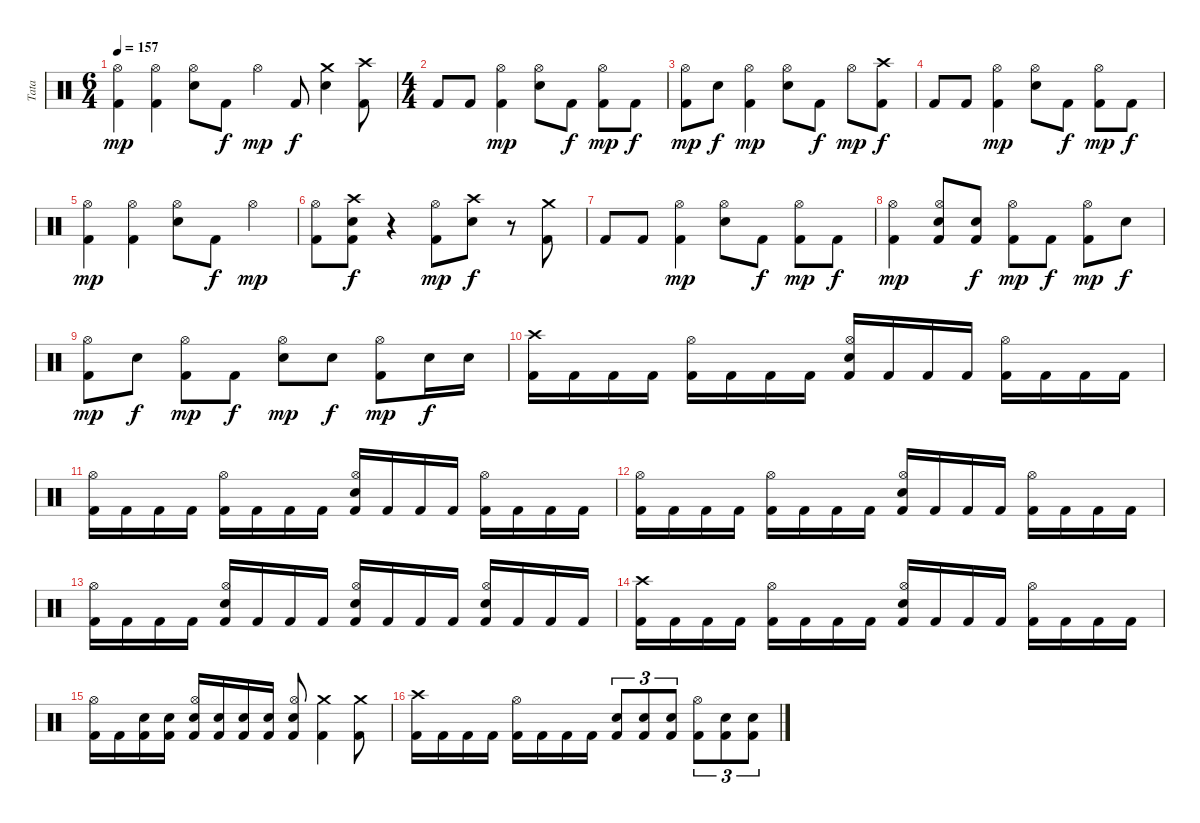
\track ("Tata" "Tata") {instrument percussion}
\staff {score}
\articulation defaults
\ts (6 4)
\tempo 157
\clef neutral
\ks c
("Kick (hit) 2" "Hi-Hat (open)").4{dy mp} ("Kick (hit) 2" "Hi-Hat (open)").4 ("Electric Snare (hit)" "Hi-Hat (open)").8 "Kick (hit) 2".8{dy f} "Hi-Hat (open)".4{dy mp} "Kick (hit) 2".8{dy f} ("Electric Snare (hit)" "Crash medium (hit)").4 ("Kick (hit) 2" "Crash high (hit)").8 |
\ts (4 4)
"Kick (hit) 2".8 "Kick (hit) 2".8 ("Kick (hit) 2" "Hi-Hat (open)").4{dy mp} ("Electric Snare (hit)" "Hi-Hat (open)").8 "Kick (hit) 2".8{dy f} ("Kick (hit) 2" "Hi-Hat (open)").8{dy mp} "Kick (hit) 2".8{dy f} |
("Kick (hit) 2" "Hi-Hat (open)").8{dy mp} "Electric Snare (hit)".8{dy f} ("Kick (hit) 2" "Hi-Hat (open)").4{dy mp} ("Electric Snare (hit)" "Hi-Hat (open)").8 "Kick (hit) 2".8{dy f} "Hi-Hat (open)".8{dy mp} ("Kick (hit) 2" "Crash high (hit)").8{dy f} |
"Kick (hit) 2".8 "Kick (hit) 2".8 ("Kick (hit) 2" "Hi-Hat (open)").4{dy mp} ("Electric Snare (hit)" "Hi-Hat (open)").8 "Kick (hit) 2".8{dy f} ("Kick (hit) 2" "Hi-Hat (open)").8{dy mp} "Kick (hit) 2".8{dy f} |
("Kick (hit) 2" "Hi-Hat (open)").4{dy mp} ("Kick (hit) 2" "Hi-Hat (open)").4 ("Electric Snare (hit)" "Hi-Hat (open)").8 "Kick (hit) 2".8{dy f} "Hi-Hat (open)".4{dy mp} |
("Kick (hit) 2" "Hi-Hat (open)").8 ("Kick (hit) 2" "Electric Snare (hit)" "Crash high (hit)").8{dy f} r.4 ("Kick (hit) 2" "Hi-Hat (open)").8{dy mp} ("Electric Snare (hit)" "Crash high (hit)").8{dy f} r.8 ("Kick (hit) 2" "Crash medium (hit)").8 |
"Kick (hit) 2".8 "Kick (hit) 2".8 ("Kick (hit) 2" "Hi-Hat (open)").4{dy mp} ("Electric Snare (hit)" "Hi-Hat (open)").8 "Kick (hit) 2".8{dy f} ("Kick (hit) 2" "Hi-Hat (open)").8{dy mp} "Kick (hit) 2".8{dy f} |
("Kick (hit) 2" "Hi-Hat (open)").4{dy mp} ("Kick (hit) 2" "Electric Snare (hit)" "Hi-Hat (open)").8 ("Kick (hit) 2" "Electric Snare (hit)").8{dy f} ("Kick (hit) 2" "Hi-Hat (open)").8{dy mp} "Kick (hit) 2".8{dy f} ("Kick (hit) 2" "Hi-Hat (open)").8{dy mp} "Electric Snare (hit)".8{dy f} |
("Kick (hit) 2" "Hi-Hat (open)").8{dy mp} "Electric Snare (hit)".8{dy f} ("Kick (hit) 2" "Hi-Hat (open)").8{dy mp} "Kick (hit) 2".8{dy f} ("Electric Snare (hit)" "Hi-Hat (open)").8{dy mp} "Electric Snare (hit)".8{dy f} ("Kick (hit) 2" "Hi-Hat (open)").8{dy mp} "Electric Snare (hit)".16{dy f} "Electric Snare (hit)".16 |
("Kick (hit) 2" "Crash high (hit)").16 "Kick (hit) 2".16 "Kick (hit) 2".16 "Kick (hit) 2".16 ("Kick (hit) 2" "Hi-Hat (open)").16 "Kick (hit) 2".16 "Kick (hit) 2".16 "Kick (hit) 2".16 ("Kick (hit) 2" "Electric Snare (hit)" "Hi-Hat (open)").16 "Kick (hit) 2".16 "Kick (hit) 2".16 "Kick (hit) 2".16 ("Kick (hit) 2" "Hi-Hat (open)").16 "Kick (hit) 2".16 "Kick (hit) 2".16 "Kick (hit) 2".16 |
("Kick (hit) 2" "Hi-Hat (open)").16 "Kick (hit) 2".16 "Kick (hit) 2".16 "Kick (hit) 2".16 ("Kick (hit) 2" "Hi-Hat (open)").16 "Kick (hit) 2".16 "Kick (hit) 2".16 "Kick (hit) 2".16 ("Kick (hit) 2" "Electric Snare (hit)" "Hi-Hat (open)").16 "Kick (hit) 2".16 "Kick (hit) 2".16 "Kick (hit) 2".16 ("Kick (hit) 2" "Hi-Hat (open)").16 "Kick (hit) 2".16 "Kick (hit) 2".16 "Kick (hit) 2".16 |
("Kick (hit) 2" "Hi-Hat (open)").16 "Kick (hit) 2".16 "Kick (hit) 2".16 "Kick (hit) 2".16 ("Kick (hit) 2" "Hi-Hat (open)").16 "Kick (hit) 2".16 "Kick (hit) 2".16 "Kick (hit) 2".16 ("Kick (hit) 2" "Electric Snare (hit)" "Hi-Hat (open)").16 "Kick (hit) 2".16 "Kick (hit) 2".16 "Kick (hit) 2".16 ("Kick (hit) 2" "Hi-Hat (open)").16 "Kick (hit) 2".16 "Kick (hit) 2".16 "Kick (hit) 2".16 |
("Kick (hit) 2" "Hi-Hat (open)").16 "Kick (hit) 2".16 "Kick (hit) 2".16 "Kick (hit) 2".16 ("Kick (hit) 2" "Electric Snare (hit)" "Hi-Hat (open)").16 "Kick (hit) 2".16 "Kick (hit) 2".16 "Kick (hit) 2".16 ("Kick (hit) 2" "Electric Snare (hit)" "Hi-Hat (open)").16 "Kick (hit) 2".16 "Kick (hit) 2".16 "Kick (hit) 2".16 ("Kick (hit) 2" "Electric Snare (hit)" "Hi-Hat (open)").16 "Kick (hit) 2".16 "Kick (hit) 2".16 "Kick (hit) 2".16 |
("Kick (hit) 2" "Crash high (hit)").16 "Kick (hit) 2".16 "Kick (hit) 2".16 "Kick (hit) 2".16 ("Kick (hit) 2" "Hi-Hat (open)").16 "Kick (hit) 2".16 "Kick (hit) 2".16 "Kick (hit) 2".16 ("Kick (hit) 2" "Electric Snare (hit)" "Hi-Hat (open)").16 "Kick (hit) 2".16 "Kick (hit) 2".16 "Kick (hit) 2".16 ("Kick (hit) 2" "Hi-Hat (open)").16 "Kick (hit) 2".16 "Kick (hit) 2".16 "Kick (hit) 2".16 |
("Kick (hit) 2" "Hi-Hat (open)").16 "Kick (hit) 2".16 ("Kick (hit) 2" "Electric Snare (hit)").16 ("Kick (hit) 2" "Electric Snare (hit)").16 ("Kick (hit) 2" "Electric Snare (hit)" "Hi-Hat (open)").16 ("Kick (hit) 2" "Electric Snare (hit)").16 ("Kick (hit) 2" "Electric Snare (hit)").16 ("Kick (hit) 2" "Electric Snare (hit)").16 ("Kick (hit) 2" "Electric Snare (hit)" "Hi-Hat (open)").8 ("Kick (hit) 2" "Crash medium (hit)").4 ("Kick (hit) 2" "Crash medium (hit)").8 |
("Kick (hit) 2" "Crash high (hit)").16 "Kick (hit) 2".16 "Kick (hit) 2".16 "Kick (hit) 2".16 ("Kick (hit) 2" "Hi-Hat (open)").16 "Kick (hit) 2".16 "Kick (hit) 2".16 "Kick (hit) 2".16 ("Kick (hit) 2" "Electric Snare (hit)").8{tu (3 2)} ("Kick (hit) 2" "Electric Snare (hit)").8{tu (3 2)} ("Kick (hit) 2" "Electric Snare (hit)").8{tu (3 2)} ("Kick (hit) 2" "Hi-Hat (open)").8{tu (3 2)} ("Kick (hit) 2" "Electric Snare (hit)").8{tu (3 2)} ("Kick (hit) 2" "Electric Snare (hit)").8{tu (3 2)}
